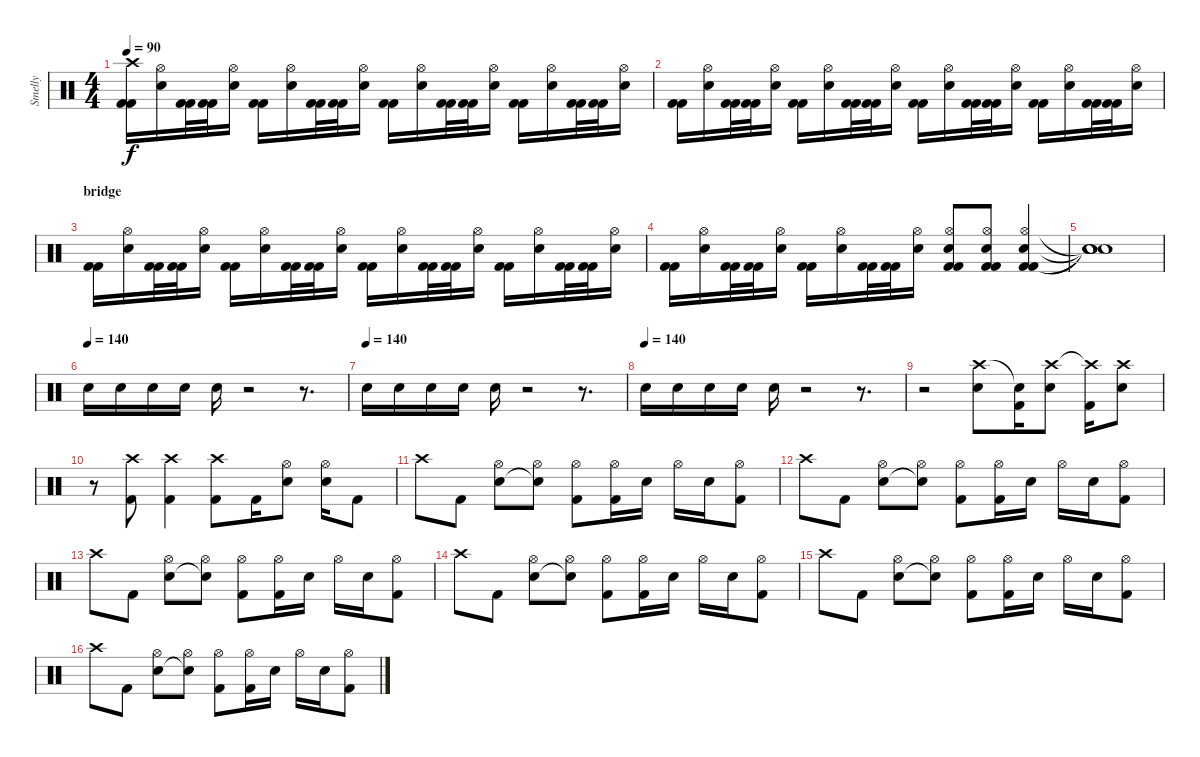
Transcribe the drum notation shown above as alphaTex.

\track ("Smelly" "Smelly") {instrument percussion}
\staff {score}
\articulation defaults
\ts (4 4)
\tempo 90
\clef neutral
\ks c
("Crash high (hit)" "Kick (hit) 2" "Kick (hit) 2").16{dy f} ("Hi-Hat (open)" "Electric Snare (hit)").16 ("Kick (hit) 2" "Kick (hit) 2").32 ("Kick (hit) 2" "Kick (hit) 2").32 ("Hi-Hat (open)" "Electric Snare (hit)").16 ("Kick (hit) 2" "Kick (hit) 2").16 ("Hi-Hat (open)" "Electric Snare (hit)").16 ("Kick (hit) 2" "Kick (hit) 2").32 ("Kick (hit) 2" "Kick (hit) 2").32 ("Hi-Hat (open)" "Electric Snare (hit)").16 ("Kick (hit) 2" "Kick (hit) 2").16 ("Hi-Hat (open)" "Electric Snare (hit)").16 ("Kick (hit) 2" "Kick (hit) 2").32 ("Kick (hit) 2" "Kick (hit) 2").32 ("Hi-Hat (open)" "Electric Snare (hit)").16 ("Kick (hit) 2" "Kick (hit) 2").16 ("Hi-Hat (open)" "Electric Snare (hit)").16 ("Kick (hit) 2" "Kick (hit) 2").32 ("Kick (hit) 2" "Kick (hit) 2").32 ("Hi-Hat (open)" "Electric Snare (hit)").16 |
("Kick (hit) 2" "Kick (hit) 2").16 ("Hi-Hat (open)" "Electric Snare (hit)").16 ("Kick (hit) 2" "Kick (hit) 2").32 ("Kick (hit) 2" "Kick (hit) 2").32 ("Hi-Hat (open)" "Electric Snare (hit)").16 ("Kick (hit) 2" "Kick (hit) 2").16 ("Hi-Hat (open)" "Electric Snare (hit)").16 ("Kick (hit) 2" "Kick (hit) 2").32 ("Kick (hit) 2" "Kick (hit) 2").32 ("Hi-Hat (open)" "Electric Snare (hit)").16 ("Kick (hit) 2" "Kick (hit) 2").16 ("Hi-Hat (open)" "Electric Snare (hit)").16 ("Kick (hit) 2" "Kick (hit) 2").32 ("Kick (hit) 2" "Kick (hit) 2").32 ("Hi-Hat (open)" "Electric Snare (hit)").16 ("Kick (hit) 2" "Kick (hit) 2").16 ("Hi-Hat (open)" "Electric Snare (hit)").16 ("Kick (hit) 2" "Kick (hit) 2").32 ("Kick (hit) 2" "Kick (hit) 2").32 ("Hi-Hat (open)" "Electric Snare (hit)").16 |
\section ("" "bridge")
("Kick (hit) 2" "Kick (hit) 2").16 ("Hi-Hat (open)" "Electric Snare (hit)").16 ("Kick (hit) 2" "Kick (hit) 2").32 ("Kick (hit) 2" "Kick (hit) 2").32 ("Hi-Hat (open)" "Electric Snare (hit)").16 ("Kick (hit) 2" "Kick (hit) 2").16 ("Hi-Hat (open)" "Electric Snare (hit)").16 ("Kick (hit) 2" "Kick (hit) 2").32 ("Kick (hit) 2" "Kick (hit) 2").32 ("Hi-Hat (open)" "Electric Snare (hit)").16 ("Kick (hit) 2" "Kick (hit) 2").16 ("Hi-Hat (open)" "Electric Snare (hit)").16 ("Kick (hit) 2" "Kick (hit) 2").32 ("Kick (hit) 2" "Kick (hit) 2").32 ("Hi-Hat (open)" "Electric Snare (hit)").16 ("Kick (hit) 2" "Kick (hit) 2").16 ("Hi-Hat (open)" "Electric Snare (hit)").16 ("Kick (hit) 2" "Kick (hit) 2").32 ("Kick (hit) 2" "Kick (hit) 2").32 ("Hi-Hat (open)" "Electric Snare (hit)").16 |
("Kick (hit) 2" "Kick (hit) 2").16 ("Hi-Hat (open)" "Electric Snare (hit)").16 ("Kick (hit) 2" "Kick (hit) 2").32 ("Kick (hit) 2" "Kick (hit) 2").32 ("Hi-Hat (open)" "Electric Snare (hit)").16 ("Kick (hit) 2" "Kick (hit) 2").16 ("Hi-Hat (open)" "Electric Snare (hit)").16 ("Kick (hit) 2" "Kick (hit) 2").32 ("Kick (hit) 2" "Kick (hit) 2").32 ("Hi-Hat (open)" "Electric Snare (hit)").16 ("Hi-Hat (open)" "Electric Snare (hit)" "Kick (hit) 2" "Kick (hit) 2").8 ("Hi-Hat (open)" "Electric Snare (hit)" "Kick (hit) 2" "Kick (hit) 2").8 ("Hi-Hat (open)" "Electric Snare (hit)" "Kick (hit) 2" "Kick (hit) 2").4 |
("Snare (hit)"{t} "Snare (hit)"{t} "Snare (hit)"{t} "Snare (hit)"{t}).1 |
\tempo (140)
"Electric Snare (hit)".16 "Electric Snare (hit)".16 "Electric Snare (hit)".16 "Electric Snare (hit)".16 "Electric Snare (hit)".16 r.2 r.8{d} |
\tempo (140)
"Electric Snare (hit)".16 "Electric Snare (hit)".16 "Electric Snare (hit)".16 "Electric Snare (hit)".16 "Electric Snare (hit)".16 r.2 r.8{d} |
\tempo (140)
"Electric Snare (hit)".16 "Electric Snare (hit)".16 "Electric Snare (hit)".16 "Electric Snare (hit)".16 "Electric Snare (hit)".16 r.2 r.8{d} |
r.2 ("Crash high (hit)" "Electric Snare (hit)").8 ("Snare (hit)"{t} "Kick (hit) 2").16 ("Crash high (hit)" "Electric Snare (hit)").8 ("Crash high (hit)"{t} "Kick (hit) 2").16 ("Crash high (hit)" "Electric Snare (hit)").8 |
r.8 ("Crash high (hit)" "Kick (hit) 2").8 ("Crash high (hit)" "Kick (hit) 2").4 ("Crash high (hit)" "Kick (hit) 2").8 "Kick (hit) 2".16 ("Hi-Hat (open)" "Electric Snare (hit)").8 ("Hi-Hat (open)" "Electric Snare (hit)").16 "Kick (hit) 2".8 |
"Crash high (hit)".8 "Kick (hit) 2".8 ("Hi-Hat (open)" "Electric Snare (hit)").8 ("Hi-Hat (open)" "Snare (hit)"{t}).8 ("Hi-Hat (open)" "Kick (hit) 2").8 ("Hi-Hat (open)" "Kick (hit) 2").16 "Electric Snare (hit)".16 "Hi-Hat (open)".16 "Electric Snare (hit)".16 ("Hi-Hat (open)" "Kick (hit) 2").8 |
"Crash high (hit)".8 "Kick (hit) 2".8 ("Hi-Hat (open)" "Electric Snare (hit)").8 ("Hi-Hat (open)" "Snare (hit)"{t}).8 ("Hi-Hat (open)" "Kick (hit) 2").8 ("Hi-Hat (open)" "Kick (hit) 2").16 "Electric Snare (hit)".16 "Hi-Hat (open)".16 "Electric Snare (hit)".16 ("Hi-Hat (open)" "Kick (hit) 2").8 |
"Crash high (hit)".8 "Kick (hit) 2".8 ("Hi-Hat (open)" "Electric Snare (hit)").8 ("Hi-Hat (open)" "Snare (hit)"{t}).8 ("Hi-Hat (open)" "Kick (hit) 2").8 ("Hi-Hat (open)" "Kick (hit) 2").16 "Electric Snare (hit)".16 "Hi-Hat (open)".16 "Electric Snare (hit)".16 ("Hi-Hat (open)" "Kick (hit) 2").8 |
"Crash high (hit)".8 "Kick (hit) 2".8 ("Hi-Hat (open)" "Electric Snare (hit)").8 ("Hi-Hat (open)" "Snare (hit)"{t}).8 ("Hi-Hat (open)" "Kick (hit) 2").8 ("Hi-Hat (open)" "Kick (hit) 2").16 "Electric Snare (hit)".16 "Hi-Hat (open)".16 "Electric Snare (hit)".16 ("Hi-Hat (open)" "Kick (hit) 2").8 |
"Crash high (hit)".8 "Kick (hit) 2".8 ("Hi-Hat (open)" "Electric Snare (hit)").8 ("Hi-Hat (open)" "Snare (hit)"{t}).8 ("Hi-Hat (open)" "Kick (hit) 2").8 ("Hi-Hat (open)" "Kick (hit) 2").16 "Electric Snare (hit)".16 "Hi-Hat (open)".16 "Electric Snare (hit)".16 ("Hi-Hat (open)" "Kick (hit) 2").8 |
"Crash high (hit)".8 "Kick (hit) 2".8 ("Hi-Hat (open)" "Electric Snare (hit)").8 ("Hi-Hat (open)" "Snare (hit)"{t}).8 ("Hi-Hat (open)" "Kick (hit) 2").8 ("Hi-Hat (open)" "Kick (hit) 2").16 "Electric Snare (hit)".16 "Hi-Hat (open)".16 "Electric Snare (hit)".16 ("Hi-Hat (open)" "Kick (hit) 2").8
